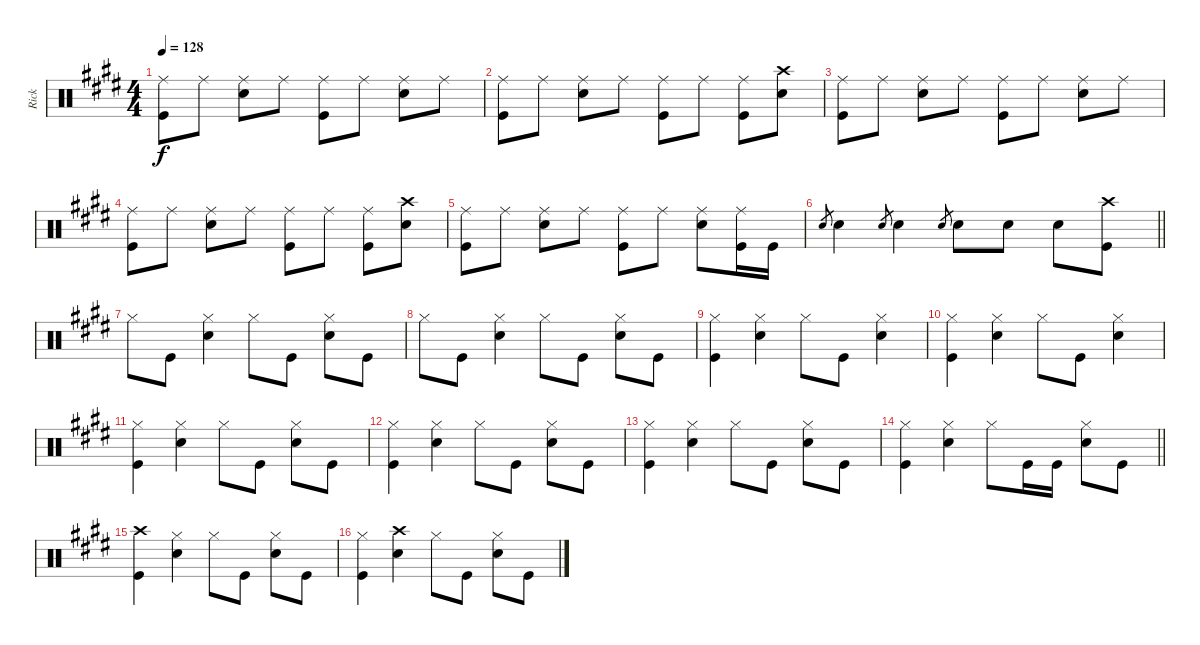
\track ("Rick" "Rick") {instrument percussion}
\staff {score}
\articulation defaults
\ts (4 4)
\tempo 128
\clef neutral
\ks c#minor
("Ride (middle)" "Kick (hit)").8{dy f} "Ride (middle)".8 ("Ride (middle)" "Snare (hit) 2").8 "Ride (middle)".8 ("Ride (middle)" "Kick (hit)").8 "Ride (middle)".8 ("Ride (middle)" "Snare (hit) 2").8 "Ride (middle)".8 |
("Ride (middle)" "Kick (hit)").8 "Ride (middle)".8 ("Ride (middle)" "Snare (hit) 2").8 "Ride (middle)".8 ("Ride (middle)" "Kick (hit)").8 "Ride (middle)".8 ("Ride (middle)" "Kick (hit)").8 ("Crash high (hit)" "Snare (hit) 2").8 |
("Ride (middle)" "Kick (hit)").8 "Ride (middle)".8 ("Ride (middle)" "Snare (hit) 2").8 "Ride (middle)".8 ("Ride (middle)" "Kick (hit)").8 "Ride (middle)".8 ("Ride (middle)" "Snare (hit) 2").8 "Ride (middle)".8 |
("Ride (middle)" "Kick (hit)").8 "Ride (middle)".8 ("Ride (middle)" "Snare (hit) 2").8 "Ride (middle)".8 ("Ride (middle)" "Kick (hit)").8 "Ride (middle)".8 ("Ride (middle)" "Kick (hit)").8 ("Crash high (hit)" "Snare (hit) 2").8 |
("Ride (middle)" "Kick (hit)").8 "Ride (middle)".8 ("Ride (middle)" "Snare (hit) 2").8 "Ride (middle)".8 ("Ride (middle)" "Kick (hit)").8 "Ride (middle)".8 ("Ride (middle)" "Snare (hit) 2").8 ("Ride (middle)" "Kick (hit)").16 "Kick (hit)".16 |
\barLineRight lightlight "Snare (hit) 2".8{gr} "Snare (hit) 2".4 "Snare (hit) 2".8{gr} "Snare (hit) 2".4 "Snare (hit) 2".8{gr} "Snare (hit) 2".8 "Snare (hit) 2".8 "Snare (hit) 2".8
("Crash high (hit)" "Kick (hit)").8 |
"Hi-Hat (closed)".8 "Kick (hit)".8 ("Hi-Hat (closed)" "Snare (hit) 2").4 "Hi-Hat (closed)".8 "Kick (hit)".8 ("Hi-Hat (closed)" "Snare (hit) 2").8 "Kick (hit)".8 |
"Hi-Hat (closed)".8 "Kick (hit)".8 ("Hi-Hat (closed)" "Snare (hit) 2").4 "Hi-Hat (closed)".8 "Kick (hit)".8 ("Hi-Hat (closed)" "Snare (hit) 2").8 "Kick (hit)".8 |
("Hi-Hat (closed)" "Kick (hit)").4 ("Hi-Hat (closed)" "Snare (hit) 2").4 "Hi-Hat (closed)".8 "Kick (hit)".8 ("Hi-Hat (closed)" "Snare (hit) 2").4 |
("Hi-Hat (closed)" "Kick (hit)").4 ("Hi-Hat (closed)" "Snare (hit) 2").4 "Hi-Hat (closed)".8 "Kick (hit)".8 ("Hi-Hat (closed)" "Snare (hit) 2").4 |
("Hi-Hat (closed)" "Kick (hit)").4 ("Hi-Hat (closed)" "Snare (hit) 2").4 "Hi-Hat (closed)".8 "Kick (hit)".8 ("Hi-Hat (closed)" "Snare (hit) 2").8 "Kick (hit)".8 |
("Hi-Hat (closed)" "Kick (hit)").4 ("Hi-Hat (closed)" "Snare (hit) 2").4 "Hi-Hat (closed)".8 "Kick (hit)".8 ("Hi-Hat (closed)" "Snare (hit) 2").8 "Kick (hit)".8 |
("Hi-Hat (closed)" "Kick (hit)").4 ("Hi-Hat (closed)" "Snare (hit) 2").4 "Hi-Hat (closed)".8 "Kick (hit)".8 ("Hi-Hat (closed)" "Snare (hit) 2").8 "Kick (hit)".8 |
\barLineRight lightlight
("Hi-Hat (closed)" "Kick (hit)").4 ("Hi-Hat (closed)" "Snare (hit) 2").4 "Hi-Hat (closed)".8 "Kick (hit)".16 "Kick (hit)".16 ("Hi-Hat (closed)" "Snare (hit) 2").8 "Kick (hit)".8 |
("Crash high (hit)" "Kick (hit)").4 ("Hi-Hat (closed)" "Snare (hit) 2").4 "Hi-Hat (closed)".8 "Kick (hit)".8 ("Hi-Hat (closed)" "Snare (hit) 2").8 "Kick (hit)".8 |
("Hi-Hat (closed)" "Kick (hit)").4 ("Crash high (hit)" "Snare (hit) 2").4 "Hi-Hat (closed)".8 "Kick (hit)".8 ("Hi-Hat (closed)" "Snare (hit) 2").8 "Kick (hit)".8
